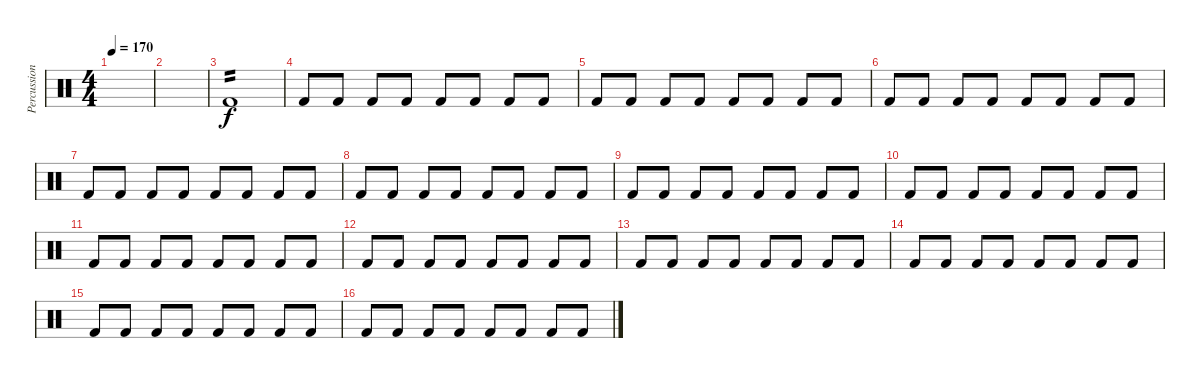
\track ("Percussion" "Percussion") {solo instrument percussion}
\staff {score}
\articulation defaults
\ts (4 4)
\tempo 170
\clef neutral
\ks c
|
|
"Kick (hit) 2".1{tp 2} |
"Kick (hit) 2".8 "Kick (hit) 2".8 "Kick (hit) 2".8 "Kick (hit) 2".8 "Kick (hit) 2".8 "Kick (hit) 2".8 "Kick (hit) 2".8 "Kick (hit) 2".8 |
"Kick (hit) 2".8 "Kick (hit) 2".8 "Kick (hit) 2".8 "Kick (hit) 2".8 "Kick (hit) 2".8 "Kick (hit) 2".8 "Kick (hit) 2".8 "Kick (hit) 2".8 |
"Kick (hit) 2".8 "Kick (hit) 2".8 "Kick (hit) 2".8 "Kick (hit) 2".8 "Kick (hit) 2".8 "Kick (hit) 2".8 "Kick (hit) 2".8 "Kick (hit) 2".8 |
"Kick (hit) 2".8 "Kick (hit) 2".8 "Kick (hit) 2".8 "Kick (hit) 2".8 "Kick (hit) 2".8 "Kick (hit) 2".8 "Kick (hit) 2".8 "Kick (hit) 2".8 |
"Kick (hit) 2".8 "Kick (hit) 2".8 "Kick (hit) 2".8 "Kick (hit) 2".8 "Kick (hit) 2".8 "Kick (hit) 2".8 "Kick (hit) 2".8 "Kick (hit) 2".8 |
"Kick (hit) 2".8 "Kick (hit) 2".8 "Kick (hit) 2".8 "Kick (hit) 2".8 "Kick (hit) 2".8 "Kick (hit) 2".8 "Kick (hit) 2".8 "Kick (hit) 2".8 |
"Kick (hit) 2".8 "Kick (hit) 2".8 "Kick (hit) 2".8 "Kick (hit) 2".8 "Kick (hit) 2".8 "Kick (hit) 2".8 "Kick (hit) 2".8 "Kick (hit) 2".8 |
"Kick (hit) 2".8 "Kick (hit) 2".8 "Kick (hit) 2".8 "Kick (hit) 2".8 "Kick (hit) 2".8 "Kick (hit) 2".8 "Kick (hit) 2".8 "Kick (hit) 2".8 |
"Kick (hit) 2".8 "Kick (hit) 2".8 "Kick (hit) 2".8 "Kick (hit) 2".8 "Kick (hit) 2".8 "Kick (hit) 2".8 "Kick (hit) 2".8 "Kick (hit) 2".8 |
"Kick (hit) 2".8 "Kick (hit) 2".8 "Kick (hit) 2".8 "Kick (hit) 2".8 "Kick (hit) 2".8 "Kick (hit) 2".8 "Kick (hit) 2".8 "Kick (hit) 2".8 |
"Kick (hit) 2".8 "Kick (hit) 2".8 "Kick (hit) 2".8 "Kick (hit) 2".8 "Kick (hit) 2".8 "Kick (hit) 2".8 "Kick (hit) 2".8 "Kick (hit) 2".8 |
"Kick (hit) 2".8 "Kick (hit) 2".8 "Kick (hit) 2".8 "Kick (hit) 2".8 "Kick (hit) 2".8 "Kick (hit) 2".8 "Kick (hit) 2".8 "Kick (hit) 2".8 |
"Kick (hit) 2".8 "Kick (hit) 2".8 "Kick (hit) 2".8 "Kick (hit) 2".8 "Kick (hit) 2".8 "Kick (hit) 2".8 "Kick (hit) 2".8 "Kick (hit) 2".8
